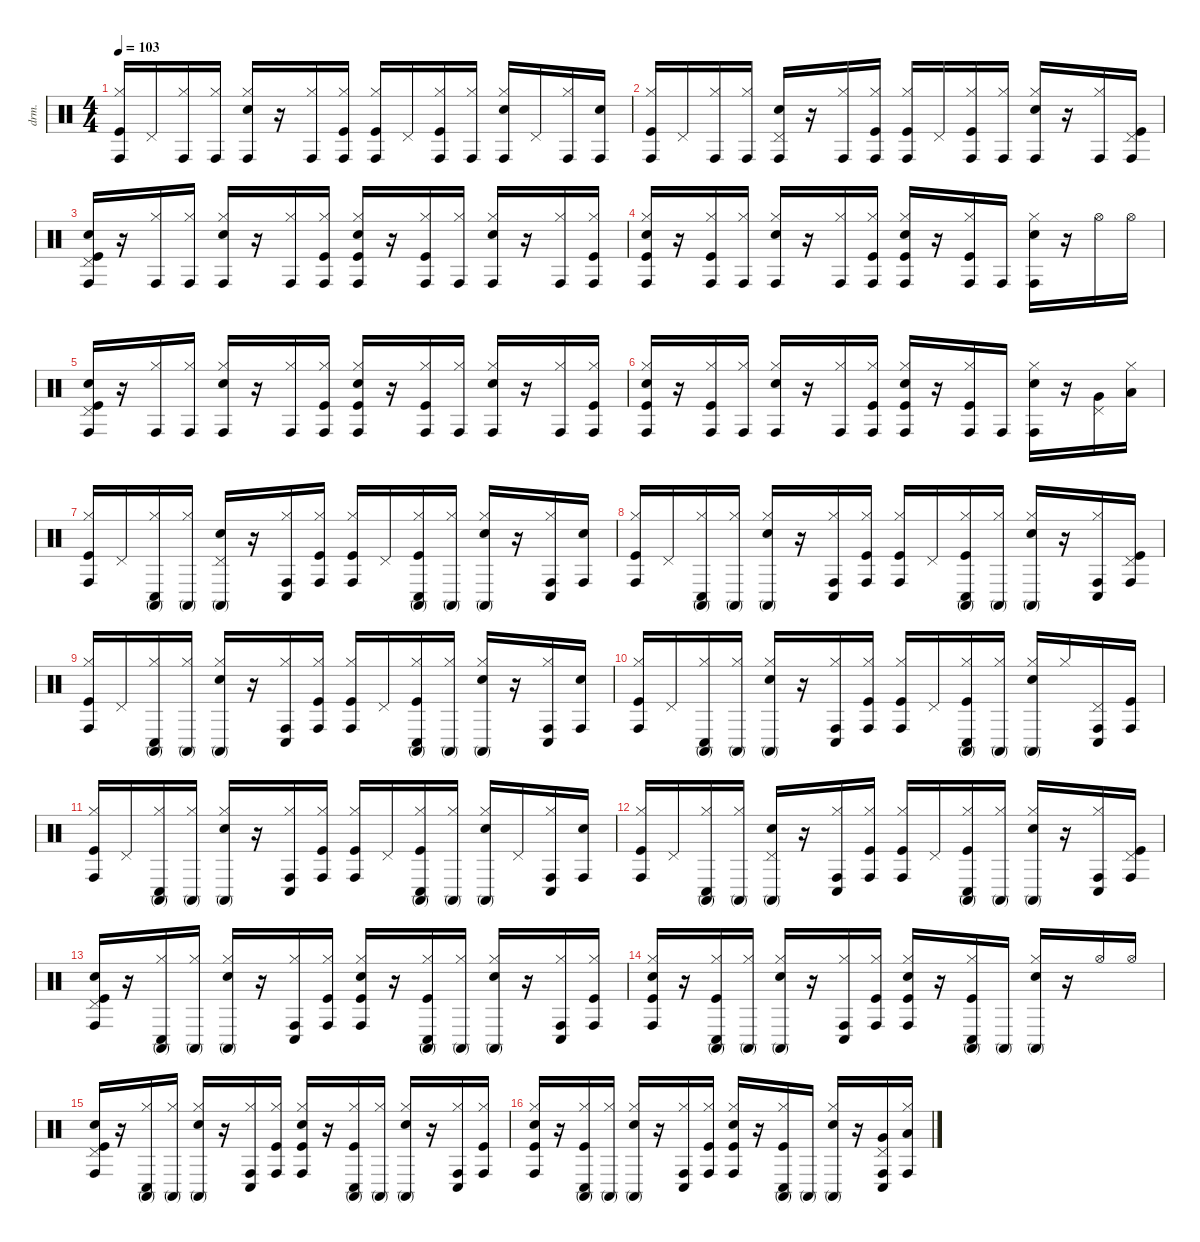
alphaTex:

\defaultSystemsLayout 4
\hideDynamics
\bracketExtendMode nobrackets
\otherSystemsTrackNameOrientation horizontal
\track ("drums" "drm.") {instrument percussion}
\staff {score}
\articulation defaults
\ts (4 4)
\tempo 103
\clef neutral
\ks c
("Kick (hit)" "Hi-Hat (closed)" "Conga high (hit)").16{dy f} "Pedal Hi-Hat (hit)".16 ("Hi-Hat (closed)" "Conga high (hit)").16 ("Hi-Hat (closed)" "Conga high (hit)").16 ("Snare (hit) 2" "Hi-Hat (closed)" "Conga high (hit)").16 r.16 ("Hi-Hat (closed)" "Conga high (hit)").16 ("Kick (hit)" "Hi-Hat (closed)" "Conga high (hit)").16 ("Kick (hit)" "Hi-Hat (closed)" "Conga high (hit)").16 "Pedal Hi-Hat (hit)".16 ("Kick (hit)" "Hi-Hat (closed)" "Conga high (hit)").16 ("Hi-Hat (closed)" "Conga high (hit)").16 ("Snare (hit) 2" "Hi-Hat (closed)" "Conga high (hit)").16 "Pedal Hi-Hat (hit)".16 ("Hi-Hat (closed)" "Conga high (hit)").16 ("Snare (hit) 2" "Conga high (hit)").16 |
("Kick (hit)" "Hi-Hat (closed)" "Conga high (hit)").16 "Pedal Hi-Hat (hit)".16 ("Hi-Hat (closed)" "Conga high (hit)").16 ("Hi-Hat (closed)" "Conga high (hit)").16 ("Snare (hit) 2" "Pedal Hi-Hat (hit)" "Conga high (hit)").16 r.16 ("Hi-Hat (closed)" "Conga high (hit)").16 ("Kick (hit)" "Hi-Hat (closed)" "Conga high (hit)").16 ("Kick (hit)" "Hi-Hat (closed)" "Conga high (hit)").16 "Pedal Hi-Hat (hit)".16 ("Kick (hit)" "Hi-Hat (closed)" "Conga high (hit)").16 ("Hi-Hat (closed)" "Conga high (hit)").16 ("Snare (hit) 2" "Hi-Hat (closed)" "Conga high (hit)").16 r.16 ("Hi-Hat (closed)" "Conga high (hit)").16 ("Kick (hit)" "Pedal Hi-Hat (hit)" "Conga high (hit)").16 |
("Kick (hit)" "Snare (hit) 2" "Pedal Hi-Hat (hit)" "Conga high (hit)").16 r.16 ("Hi-Hat (closed)" "Conga high (hit)").16 ("Hi-Hat (closed)" "Conga high (hit)").16 ("Snare (hit) 2" "Hi-Hat (closed)" "Conga high (hit)").16 r.16 ("Hi-Hat (closed)" "Conga high (hit)").16 ("Kick (hit)" "Hi-Hat (closed)" "Conga high (hit)").16 ("Kick (hit)" "Snare (hit) 2" "Hi-Hat (closed)" "Conga high (hit)").16 r.16 ("Kick (hit)" "Hi-Hat (closed)" "Conga high (hit)").16 ("Hi-Hat (closed)" "Conga high (hit)").16 ("Snare (hit) 2" "Hi-Hat (closed)" "Conga high (hit)").16 r.16 ("Hi-Hat (closed)" "Conga high (hit)").16 ("Kick (hit)" "Hi-Hat (closed)" "Conga high (hit)").16 |
("Kick (hit)" "Snare (hit) 2" "Hi-Hat (closed)" "Conga high (hit)").16 r.16 ("Kick (hit)" "Hi-Hat (closed)" "Conga high (hit)").16 ("Hi-Hat (closed)" "Conga high (hit)").16 ("Snare (hit) 2" "Hi-Hat (closed)" "Conga high (hit)").16 r.16 ("Hi-Hat (closed)" "Conga high (hit)").16 ("Kick (hit)" "Hi-Hat (closed)" "Conga high (hit)").16 ("Kick (hit)" "Snare (hit) 2" "Hi-Hat (closed)" "Conga high (hit)").16 r.16 ("Kick (hit)" "Hi-Hat (closed)" "Conga high (hit)").16 "Conga high (hit)".16 ("Snare (hit) 2" "Hi-Hat (closed)" "Conga high (hit)").16 r.16 "Hi-Hat (open)".16 "Hi-Hat (open)".16 |
("Kick (hit)" "Snare (hit) 2" "Pedal Hi-Hat (hit)" "Conga high (hit)").16 r.16 ("Hi-Hat (closed)" "Conga high (hit)").16 ("Hi-Hat (closed)" "Conga high (hit)").16 ("Snare (hit) 2" "Hi-Hat (closed)" "Conga high (hit)").16 r.16 ("Hi-Hat (closed)" "Conga high (hit)").16 ("Kick (hit)" "Hi-Hat (closed)" "Conga high (hit)").16 ("Kick (hit)" "Snare (hit) 2" "Hi-Hat (closed)" "Conga high (hit)").16 r.16 ("Kick (hit)" "Hi-Hat (closed)" "Conga high (hit)").16 ("Hi-Hat (closed)" "Conga high (hit)").16 ("Snare (hit) 2" "Hi-Hat (closed)" "Conga high (hit)").16 r.16 ("Hi-Hat (closed)" "Conga high (hit)").16 ("Kick (hit)" "Hi-Hat (closed)" "Conga high (hit)").16 |
("Kick (hit)" "Snare (hit) 2" "Hi-Hat (closed)" "Conga high (hit)").16 r.16 ("Kick (hit)" "Hi-Hat (closed)" "Conga high (hit)").16 ("Hi-Hat (closed)" "Conga high (hit)").16 ("Snare (hit) 2" "Hi-Hat (closed)" "Conga high (hit)").16 r.16 ("Hi-Hat (closed)" "Conga high (hit)").16 ("Kick (hit)" "Hi-Hat (closed)" "Conga high (hit)").16 ("Kick (hit)" "Snare (hit) 2" "Hi-Hat (closed)" "Conga high (hit)").16 r.16 ("Kick (hit)" "Hi-Hat (closed)" "Conga high (hit)").16 "Conga high (hit)".16 ("Snare (hit) 2" "Hi-Hat (closed)" "Conga high (hit)").16 r.16 ("Very Low Tom (hit)" "Pedal Hi-Hat (hit)").16 ("Low Floor Tom (hit)" "Hi-Hat (closed)").16 |
("Kick (hit)" "Hi-Hat (closed)" "Conga high (hit)").16 "Pedal Hi-Hat (hit)".16 ("Hi-Hat (closed)" "Conga high (mute)" "Conga low (hit)").16 ("Hi-Hat (closed)" "Conga high (mute)").16 ("Conga high (mute)" "Snare (hit) 2" "Pedal Hi-Hat (hit)").16 r.16 ("Hi-Hat (closed)" "Conga low (hit)" "Conga high (hit)").16 ("Kick (hit)" "Hi-Hat (closed)" "Conga high (hit)").16 ("Kick (hit)" "Hi-Hat (closed)" "Conga high (hit)").16 "Pedal Hi-Hat (hit)".16 ("Kick (hit)" "Conga low (hit)" "Conga high (mute)" "Hi-Hat (closed)").16 ("Conga high (mute)" "Hi-Hat (closed)").16 ("Conga high (mute)" "Snare (hit) 2" "Hi-Hat (closed)").16 r.16 ("Hi-Hat (closed)" "Conga low (hit)" "Conga high (hit)").16 ("Conga high (hit)" "Snare (hit) 2").16 |
("Kick (hit)" "Hi-Hat (closed)" "Conga high (hit)").16 "Pedal Hi-Hat (hit)".16 ("Conga low (hit)" "Conga high (mute)" "Hi-Hat (closed)").16 ("Conga high (mute)" "Hi-Hat (closed)").16 ("Conga high (mute)" "Snare (hit) 2" "Hi-Hat (closed)").16 r.16 ("Hi-Hat (closed)" "Conga low (hit)" "Conga high (hit)").16 ("Kick (hit)" "Hi-Hat (closed)" "Conga high (hit)").16 ("Kick (hit)" "Hi-Hat (closed)" "Conga high (hit)").16 "Pedal Hi-Hat (hit)".16 ("Kick (hit)" "Conga low (hit)" "Conga high (mute)" "Hi-Hat (closed)").16 ("Conga high (mute)" "Hi-Hat (closed)").16 ("Conga high (mute)" "Snare (hit) 2" "Hi-Hat (closed)").16 r.16 ("Hi-Hat (closed)" "Conga low (hit)" "Conga high (hit)").16 ("Kick (hit)" "Pedal Hi-Hat (hit)" "Conga high (hit)").16 |
("Kick (hit)" "Hi-Hat (closed)" "Conga high (hit)").16 "Pedal Hi-Hat (hit)".16 ("Conga low (hit)" "Conga high (mute)" "Hi-Hat (closed)").16 ("Conga high (mute)" "Hi-Hat (closed)").16 ("Conga high (mute)" "Snare (hit) 2" "Hi-Hat (closed)").16 r.16 ("Hi-Hat (closed)" "Conga low (hit)" "Conga high (hit)").16 ("Kick (hit)" "Hi-Hat (closed)" "Conga high (hit)").16 ("Kick (hit)" "Hi-Hat (closed)" "Conga high (hit)").16 "Pedal Hi-Hat (hit)".16 ("Kick (hit)" "Conga low (hit)" "Conga high (mute)" "Hi-Hat (closed)").16 ("Conga high (mute)" "Hi-Hat (closed)").16 ("Conga high (mute)" "Snare (hit) 2" "Hi-Hat (closed)").16 r.16 ("Hi-Hat (closed)" "Conga low (hit)" "Conga high (hit)").16 ("Conga high (hit)" "Snare (hit) 2").16 |
("Kick (hit)" "Hi-Hat (closed)" "Conga high (hit)").16 "Pedal Hi-Hat (hit)".16 ("Conga low (hit)" "Conga high (mute)" "Hi-Hat (closed)").16 ("Conga high (mute)" "Hi-Hat (closed)").16 ("Conga high (mute)" "Snare (hit) 2" "Hi-Hat (closed)").16 r.16 ("Hi-Hat (closed)" "Conga low (hit)" "Conga high (hit)").16 ("Kick (hit)" "Hi-Hat (closed)" "Conga high (hit)").16 ("Kick (hit)" "Hi-Hat (closed)" "Conga high (hit)").16 "Pedal Hi-Hat (hit)".16 ("Kick (hit)" "Conga low (hit)" "Conga high (mute)" "Hi-Hat (closed)").16 ("Conga high (mute)" "Hi-Hat (closed)").16 ("Conga high (mute)" "Snare (hit) 2" "Hi-Hat (closed)").16 "Hi-Hat (closed)".16 ("Conga low (hit)" "Conga high (hit)" "Pedal Hi-Hat (hit)").16 ("Conga high (hit)" "Kick (hit)").16 |
("Kick (hit)" "Hi-Hat (closed)" "Conga high (hit)").16 "Pedal Hi-Hat (hit)".16 ("Conga low (hit)" "Conga high (mute)" "Hi-Hat (closed)").16 ("Conga high (mute)" "Hi-Hat (closed)").16 ("Conga high (mute)" "Snare (hit) 2" "Hi-Hat (closed)").16 r.16 ("Hi-Hat (closed)" "Conga low (hit)" "Conga high (hit)").16 ("Kick (hit)" "Hi-Hat (closed)" "Conga high (hit)").16 ("Kick (hit)" "Hi-Hat (closed)" "Conga high (hit)").16 "Pedal Hi-Hat (hit)".16 ("Kick (hit)" "Conga low (hit)" "Conga high (mute)" "Hi-Hat (closed)").16 ("Conga high (mute)" "Hi-Hat (closed)").16 ("Conga high (mute)" "Snare (hit) 2" "Hi-Hat (closed)").16 "Pedal Hi-Hat (hit)".16 ("Hi-Hat (closed)" "Conga low (hit)" "Conga high (hit)").16 ("Snare (hit) 2" "Conga high (hit)").16 |
("Kick (hit)" "Hi-Hat (closed)" "Conga high (hit)").16 "Pedal Hi-Hat (hit)".16 ("Hi-Hat (closed)" "Conga low (hit)" "Conga high (mute)").16 ("Hi-Hat (closed)" "Conga high (mute)").16 ("Conga high (mute)" "Snare (hit) 2" "Pedal Hi-Hat (hit)").16 r.16 ("Hi-Hat (closed)" "Conga low (hit)" "Conga high (hit)").16 ("Kick (hit)" "Hi-Hat (closed)" "Conga high (hit)").16 ("Kick (hit)" "Hi-Hat (closed)" "Conga high (hit)").16 "Pedal Hi-Hat (hit)".16 ("Kick (hit)" "Conga low (hit)" "Conga high (mute)" "Hi-Hat (closed)").16 ("Conga high (mute)" "Hi-Hat (closed)").16 ("Conga high (mute)" "Snare (hit) 2" "Hi-Hat (closed)").16 r.16 ("Hi-Hat (closed)" "Conga low (hit)" "Conga high (hit)").16 ("Kick (hit)" "Pedal Hi-Hat (hit)" "Conga high (hit)").16 |
("Kick (hit)" "Snare (hit) 2" "Pedal Hi-Hat (hit)" "Conga high (hit)").16 r.16 ("Conga low (hit)" "Conga high (mute)" "Hi-Hat (closed)").16 ("Conga high (mute)" "Hi-Hat (closed)").16 ("Snare (hit) 2" "Conga high (mute)" "Hi-Hat (closed)").16 r.16 ("Hi-Hat (closed)" "Conga low (hit)" "Conga high (hit)").16 ("Kick (hit)" "Hi-Hat (closed)" "Conga high (hit)").16 ("Kick (hit)" "Snare (hit) 2" "Hi-Hat (closed)" "Conga high (hit)").16 r.16 ("Kick (hit)" "Conga low (hit)" "Conga high (mute)" "Hi-Hat (closed)").16 ("Conga high (mute)" "Hi-Hat (closed)").16 ("Snare (hit) 2" "Conga high (mute)" "Hi-Hat (closed)").16 r.16 ("Hi-Hat (closed)" "Conga low (hit)" "Conga high (hit)").16 ("Kick (hit)" "Hi-Hat (closed)" "Conga high (hit)").16 |
("Kick (hit)" "Snare (hit) 2" "Hi-Hat (closed)" "Conga high (hit)").16 r.16 ("Kick (hit)" "Conga low (hit)" "Conga high (mute)" "Hi-Hat (closed)").16 ("Conga high (mute)" "Hi-Hat (closed)").16 ("Snare (hit) 2" "Conga high (mute)" "Hi-Hat (closed)").16 r.16 ("Conga low (hit)" "Hi-Hat (closed)" "Conga high (hit)").16 ("Kick (hit)" "Hi-Hat (closed)" "Conga high (hit)").16 ("Kick (hit)" "Snare (hit) 2" "Hi-Hat (closed)" "Conga high (hit)").16 r.16 ("Conga low (hit)" "Conga high (mute)" "Kick (hit)" "Hi-Hat (closed)").16 "Conga high (mute)".16 ("Conga high (mute)" "Snare (hit) 2" "Hi-Hat (closed)").16 r.16 "Hi-Hat (open)".16 "Hi-Hat (open)".16 |
("Kick (hit)" "Snare (hit) 2" "Pedal Hi-Hat (hit)" "Conga high (hit)").16 r.16 ("Conga high (mute)" "Conga low (hit)" "Hi-Hat (closed)").16 ("Conga high (mute)" "Hi-Hat (closed)").16 ("Snare (hit) 2" "Conga high (mute)" "Hi-Hat (closed)").16 r.16 ("Hi-Hat (closed)" "Conga low (hit)" "Conga high (hit)").16 ("Kick (hit)" "Hi-Hat (closed)" "Conga high (hit)").16 ("Kick (hit)" "Snare (hit) 2" "Hi-Hat (closed)" "Conga high (hit)").16 r.16 ("Kick (hit)" "Conga low (hit)" "Conga high (mute)" "Hi-Hat (closed)").16 ("Conga high (mute)" "Hi-Hat (closed)").16 ("Snare (hit) 2" "Conga high (mute)" "Hi-Hat (closed)").16 r.16 ("Hi-Hat (closed)" "Conga low (hit)" "Conga high (hit)").16 ("Conga high (hit)" "Kick (hit)" "Hi-Hat (closed)").16 |
("Kick (hit)" "Snare (hit) 2" "Hi-Hat (closed)" "Conga high (hit)").16 r.16 ("Kick (hit)" "Conga low (hit)" "Conga high (mute)" "Hi-Hat (closed)").16 ("Conga high (mute)" "Hi-Hat (closed)").16 ("Snare (hit) 2" "Conga high (mute)" "Hi-Hat (closed)").16 r.16 ("Hi-Hat (closed)" "Conga low (hit)" "Conga high (hit)").16 ("Kick (hit)" "Hi-Hat (closed)" "Conga high (hit)").16 ("Kick (hit)" "Snare (hit) 2" "Hi-Hat (closed)" "Conga high (hit)").16 r.16 ("Kick (hit)" "Conga low (hit)" "Conga high (mute)" "Hi-Hat (closed)").16 "Conga high (mute)".16 ("Snare (hit) 2" "Conga high (mute)" "Hi-Hat (closed)").16 r.16 ("Very Low Tom (hit)" "Conga low (hit)" "Conga high (hit)" "Pedal Hi-Hat (hit)").16 ("Low Floor Tom (hit)" "Conga high (hit)" "Hi-Hat (closed)").16
